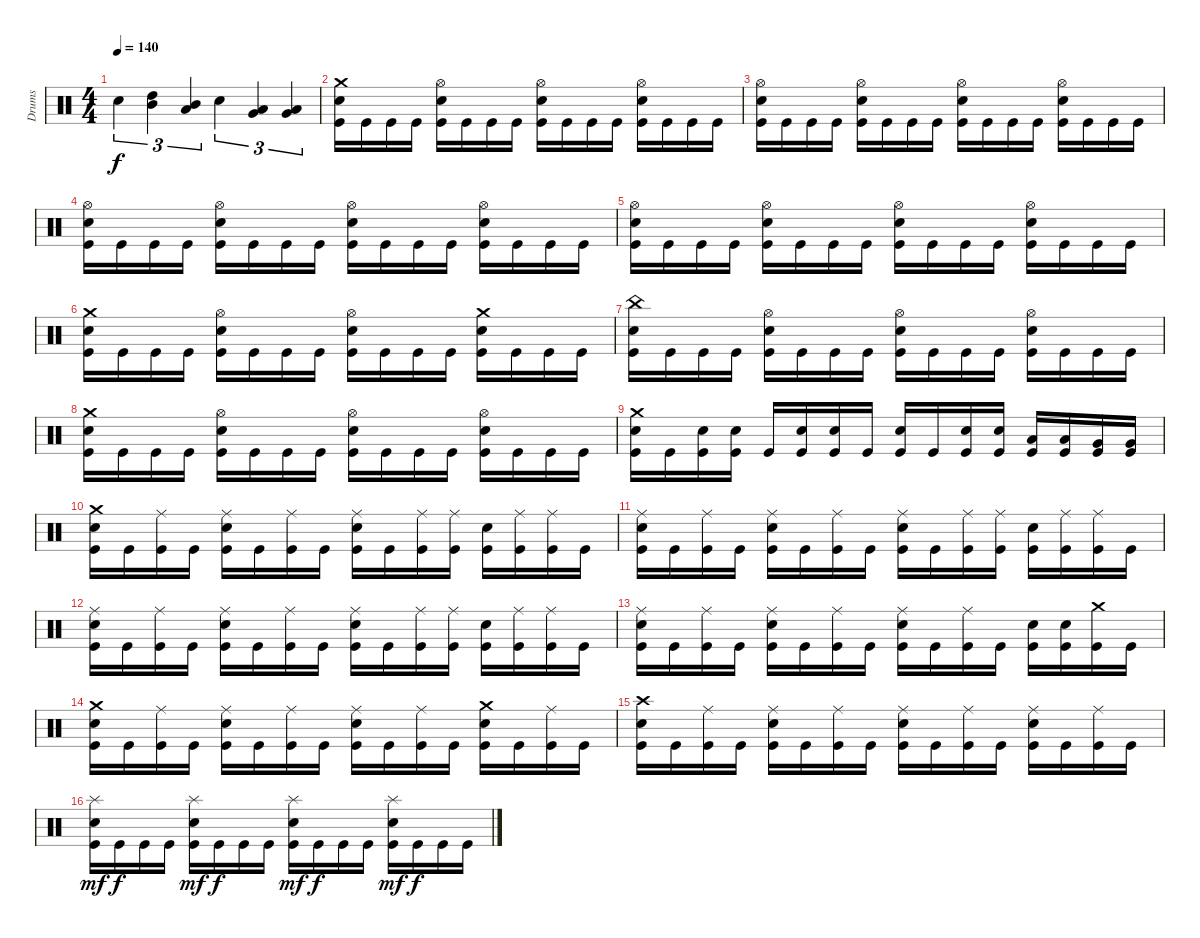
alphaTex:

\track ("Drums" "Drums") {instrument percussion}
\staff {score}
\articulation defaults
\ts (4 4)
\tempo 140
\clef neutral
\ks c "Electric Snare (hit)".4{tu (3 2) dy f}
("Mid Tom (hit)" "High Tom (hit)").4{tu (3 2)} ("Mid Tom (hit)" "Low Tom (hit)").4{tu (3 2)} "Electric Snare (hit)".4{tu (3 2)} ("Low Tom (hit)" "Very Low Tom (hit)").4{tu (3 2)} ("Very Low Tom (hit)" "Low Floor Tom (hit)").4{tu (3 2)} |
("Kick (hit)" "Electric Snare (hit)" "Crash medium (hit)").16 "Kick (hit)".16 "Kick (hit)".16 "Kick (hit)".16 ("Kick (hit)" "Electric Snare (hit)" "Hi-Hat (open)").16 "Kick (hit)".16 "Kick (hit)".16 "Kick (hit)".16 ("Kick (hit)" "Electric Snare (hit)" "Hi-Hat (open)").16 "Kick (hit)".16 "Kick (hit)".16 "Kick (hit)".16 ("Kick (hit)" "Electric Snare (hit)" "Hi-Hat (open)").16 "Kick (hit)".16 "Kick (hit)".16 "Kick (hit)".16 |
("Kick (hit)" "Electric Snare (hit)" "Hi-Hat (open)").16 "Kick (hit)".16 "Kick (hit)".16 "Kick (hit)".16 ("Kick (hit)" "Electric Snare (hit)" "Hi-Hat (open)").16 "Kick (hit)".16 "Kick (hit)".16 "Kick (hit)".16 ("Kick (hit)" "Electric Snare (hit)" "Hi-Hat (open)").16 "Kick (hit)".16 "Kick (hit)".16 "Kick (hit)".16 ("Kick (hit)" "Electric Snare (hit)" "Hi-Hat (open)").16 "Kick (hit)".16 "Kick (hit)".16 "Kick (hit)".16 |
("Kick (hit)" "Electric Snare (hit)" "Hi-Hat (open)").16 "Kick (hit)".16 "Kick (hit)".16 "Kick (hit)".16 ("Kick (hit)" "Electric Snare (hit)" "Hi-Hat (open)").16 "Kick (hit)".16 "Kick (hit)".16 "Kick (hit)".16 ("Kick (hit)" "Electric Snare (hit)" "Hi-Hat (open)").16 "Kick (hit)".16 "Kick (hit)".16 "Kick (hit)".16 ("Kick (hit)" "Electric Snare (hit)" "Hi-Hat (open)").16 "Kick (hit)".16 "Kick (hit)".16 "Kick (hit)".16 |
("Kick (hit)" "Electric Snare (hit)" "Hi-Hat (open)").16 "Kick (hit)".16 "Kick (hit)".16 "Kick (hit)".16 ("Kick (hit)" "Electric Snare (hit)" "Hi-Hat (open)").16 "Kick (hit)".16 "Kick (hit)".16 "Kick (hit)".16 ("Kick (hit)" "Electric Snare (hit)" "Hi-Hat (open)").16 "Kick (hit)".16 "Kick (hit)".16 "Kick (hit)".16 ("Kick (hit)" "Electric Snare (hit)" "Hi-Hat (open)").16 "Kick (hit)".16 "Kick (hit)".16 "Kick (hit)".16 |
("Kick (hit)" "Electric Snare (hit)" "Crash medium (hit)").16 "Kick (hit)".16 "Kick (hit)".16 "Kick (hit)".16 ("Kick (hit)" "Electric Snare (hit)" "Hi-Hat (open)").16 "Kick (hit)".16 "Kick (hit)".16 "Kick (hit)".16 ("Kick (hit)" "Electric Snare (hit)" "Hi-Hat (open)").16 "Kick (hit)".16 "Kick (hit)".16 "Kick (hit)".16 ("Kick (hit)" "Electric Snare (hit)" "Crash medium (hit)").16 "Kick (hit)".16 "Kick (hit)".16 "Kick (hit)".16 |
("Kick (hit)" "Electric Snare (hit)" "China (hit)").16 "Kick (hit)".16 "Kick (hit)".16 "Kick (hit)".16 ("Kick (hit)" "Electric Snare (hit)" "Hi-Hat (open)").16 "Kick (hit)".16 "Kick (hit)".16 "Kick (hit)".16 ("Kick (hit)" "Electric Snare (hit)" "Hi-Hat (open)").16 "Kick (hit)".16 "Kick (hit)".16 "Kick (hit)".16 ("Kick (hit)" "Electric Snare (hit)" "Hi-Hat (open)").16 "Kick (hit)".16 "Kick (hit)".16 "Kick (hit)".16 |
("Kick (hit)" "Electric Snare (hit)" "Crash medium (hit)").16 "Kick (hit)".16 "Kick (hit)".16 "Kick (hit)".16 ("Kick (hit)" "Electric Snare (hit)" "Hi-Hat (open)").16 "Kick (hit)".16 "Kick (hit)".16 "Kick (hit)".16 ("Kick (hit)" "Electric Snare (hit)" "Hi-Hat (open)").16 "Kick (hit)".16 "Kick (hit)".16 "Kick (hit)".16 ("Kick (hit)" "Electric Snare (hit)" "Hi-Hat (open)").16 "Kick (hit)".16 "Kick (hit)".16 "Kick (hit)".16 |
("Kick (hit)" "Electric Snare (hit)" "Crash medium (hit)").16 "Kick (hit)".16 ("Kick (hit)" "Electric Snare (hit)").16 ("Kick (hit)" "Electric Snare (hit)").16 "Kick (hit)".16 ("Kick (hit)" "Electric Snare (hit)").16 ("Kick (hit)" "Electric Snare (hit)").16 "Kick (hit)".16 ("Kick (hit)" "Electric Snare (hit)").16 "Kick (hit)".16 ("Kick (hit)" "Electric Snare (hit)").16 ("Kick (hit)" "Electric Snare (hit)").16 ("Kick (hit)" "Low Tom (hit)").16 ("Kick (hit)" "Low Tom (hit)").16 ("Kick (hit)" "Very Low Tom (hit)").16 ("Kick (hit)" "Very Low Tom (hit)").16 |
("Kick (hit)" "Electric Snare (hit)" "Crash medium (hit)").16 "Kick (hit)".16 ("Kick (hit)" "Ride (middle)").16 "Kick (hit)".16 ("Kick (hit)" "Electric Snare (hit)" "Ride (middle)").16 "Kick (hit)".16 ("Kick (hit)" "Ride (middle)").16 "Kick (hit)".16 ("Kick (hit)" "Electric Snare (hit)" "Ride (middle)").16 "Kick (hit)".16 ("Kick (hit)" "Ride (middle)").16 ("Kick (hit)" "Ride (middle)").16 ("Kick (hit)" "Electric Snare (hit)").16 ("Kick (hit)" "Ride (middle)").16 ("Kick (hit)" "Ride (middle)").16 "Kick (hit)".16 |
("Kick (hit)" "Electric Snare (hit)" "Ride (middle)").16 "Kick (hit)".16 ("Kick (hit)" "Ride (middle)").16 "Kick (hit)".16 ("Kick (hit)" "Electric Snare (hit)" "Ride (middle)").16 "Kick (hit)".16 ("Kick (hit)" "Ride (middle)").16 "Kick (hit)".16 ("Kick (hit)" "Electric Snare (hit)" "Ride (middle)").16 "Kick (hit)".16 ("Kick (hit)" "Ride (middle)").16 ("Kick (hit)" "Ride (middle)").16 ("Kick (hit)" "Electric Snare (hit)").16 ("Kick (hit)" "Ride (middle)").16 ("Kick (hit)" "Ride (middle)").16 "Kick (hit)".16 |
("Kick (hit)" "Electric Snare (hit)" "Ride (middle)").16 "Kick (hit)".16 ("Kick (hit)" "Ride (middle)").16 "Kick (hit)".16 ("Kick (hit)" "Electric Snare (hit)" "Ride (middle)").16 "Kick (hit)".16 ("Kick (hit)" "Ride (middle)").16 "Kick (hit)".16 ("Kick (hit)" "Electric Snare (hit)" "Ride (middle)").16 "Kick (hit)".16 ("Kick (hit)" "Ride (middle)").16 ("Kick (hit)" "Ride (middle)").16 ("Kick (hit)" "Electric Snare (hit)").16 ("Kick (hit)" "Ride (middle)").16 ("Kick (hit)" "Ride (middle)").16 "Kick (hit)".16 |
("Kick (hit)" "Electric Snare (hit)" "Ride (middle)").16 "Kick (hit)".16 ("Kick (hit)" "Ride (middle)").16 "Kick (hit)".16 ("Kick (hit)" "Electric Snare (hit)" "Ride (middle)").16 "Kick (hit)".16 ("Kick (hit)" "Ride (middle)").16 "Kick (hit)".16 ("Kick (hit)" "Electric Snare (hit)" "Ride (middle)").16 "Kick (hit)".16 ("Kick (hit)" "Ride (middle)").16 "Kick (hit)".16 ("Kick (hit)" "Electric Snare (hit)").16 ("Kick (hit)" "Electric Snare (hit)").16 ("Kick (hit)" "Crash medium (hit)").16 "Kick (hit)".16 |
("Kick (hit)" "Electric Snare (hit)" "Crash medium (hit)").16 "Kick (hit)".16 ("Kick (hit)" "Ride (middle)").16 "Kick (hit)".16 ("Kick (hit)" "Electric Snare (hit)" "Ride (middle)").16 "Kick (hit)".16 ("Kick (hit)" "Ride (middle)").16 "Kick (hit)".16 ("Kick (hit)" "Electric Snare (hit)" "Ride (middle)").16 "Kick (hit)".16 ("Kick (hit)" "Ride (middle)").16 "Kick (hit)".16 ("Kick (hit)" "Electric Snare (hit)" "Crash medium (hit)").16 "Kick (hit)".16 ("Kick (hit)" "Ride (middle)").16 "Kick (hit)".16 |
("Kick (hit)" "Electric Snare (hit)" "Crash high (hit)").16 "Kick (hit)".16 ("Kick (hit)" "Ride (middle)").16 "Kick (hit)".16 ("Kick (hit)" "Electric Snare (hit)" "Ride (middle)").16 "Kick (hit)".16 ("Kick (hit)" "Ride (middle)").16 "Kick (hit)".16 ("Kick (hit)" "Electric Snare (hit)" "Ride (middle)").16 "Kick (hit)".16 ("Kick (hit)" "Ride (middle)").16 "Kick (hit)".16 ("Kick (hit)" "Electric Snare (hit)" "Ride (middle)").16 "Kick (hit)".16 ("Kick (hit)" "Ride (middle)").16 "Kick (hit)".16 |
("Kick (hit)" "Electric Snare (hit)" "Splash (hit)").16{dy mf} "Kick (hit)".16{dy f} "Kick (hit)".16 "Kick (hit)".16 ("Kick (hit)" "Electric Snare (hit)" "Splash (hit)").16{dy mf} "Kick (hit)".16{dy f} "Kick (hit)".16 "Kick (hit)".16 ("Kick (hit)" "Electric Snare (hit)" "Splash (hit)").16{dy mf} "Kick (hit)".16{dy f} "Kick (hit)".16 "Kick (hit)".16 ("Kick (hit)" "Electric Snare (hit)" "Splash (hit)").16{dy mf} "Kick (hit)".16{dy f} "Kick (hit)".16 "Kick (hit)".16
